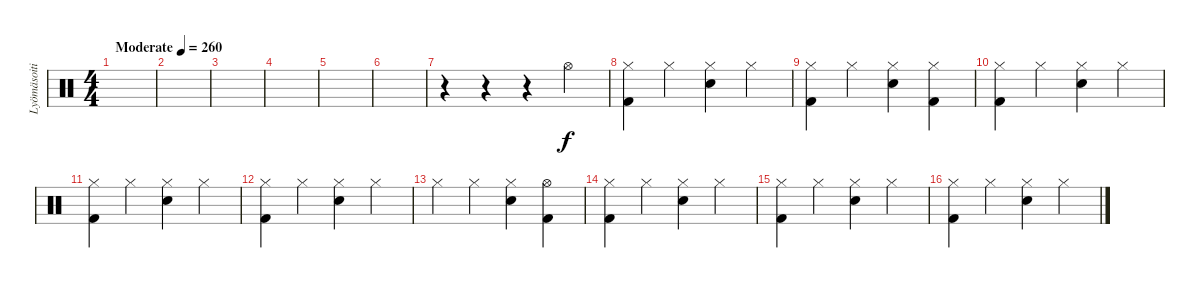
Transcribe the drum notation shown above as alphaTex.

\track ("Lyömäsoitin" "Lyömäsoiti") {instrument percussion}
\staff {score}
\articulation defaults
\ts (4 4)
\tempo (260 "Moderate")
\clef neutral
\ks c
|
|
|
|
|
|
r.4 r.4 r.4 "Hi-Hat (open)".4 |
("Hi-Hat (closed)" "Kick (hit) 2").4 "Hi-Hat (closed)".4 ("Hi-Hat (closed)" "Electric Snare (hit)").4 "Hi-Hat (closed)".4 |
("Hi-Hat (closed)" "Kick (hit) 2").4 "Hi-Hat (closed)".4 ("Hi-Hat (closed)" "Electric Snare (hit)").4 ("Hi-Hat (closed)" "Kick (hit) 2").4 |
("Hi-Hat (closed)" "Kick (hit) 2").4 "Hi-Hat (closed)".4 ("Hi-Hat (closed)" "Electric Snare (hit)").4 "Hi-Hat (closed)".4 |
("Hi-Hat (closed)" "Kick (hit) 2").4 "Hi-Hat (closed)".4 ("Hi-Hat (closed)" "Electric Snare (hit)").4 "Hi-Hat (closed)".4 |
("Hi-Hat (closed)" "Kick (hit) 2").4 "Hi-Hat (closed)".4 ("Hi-Hat (closed)" "Electric Snare (hit)").4 "Hi-Hat (closed)".4 |
"Hi-Hat (closed)".4 "Hi-Hat (closed)".4 ("Hi-Hat (closed)" "Electric Snare (hit)").4 ("Hi-Hat (open)" "Kick (hit) 2").4 |
("Hi-Hat (closed)" "Kick (hit) 2").4 "Hi-Hat (closed)".4 ("Hi-Hat (closed)" "Electric Snare (hit)").4 "Hi-Hat (closed)".4 |
("Hi-Hat (closed)" "Kick (hit) 2").4 "Hi-Hat (closed)".4 ("Hi-Hat (closed)" "Electric Snare (hit)").4 "Hi-Hat (closed)".4 |
("Hi-Hat (closed)" "Kick (hit) 2").4 "Hi-Hat (closed)".4 ("Hi-Hat (closed)" "Electric Snare (hit)").4 "Hi-Hat (closed)".4
